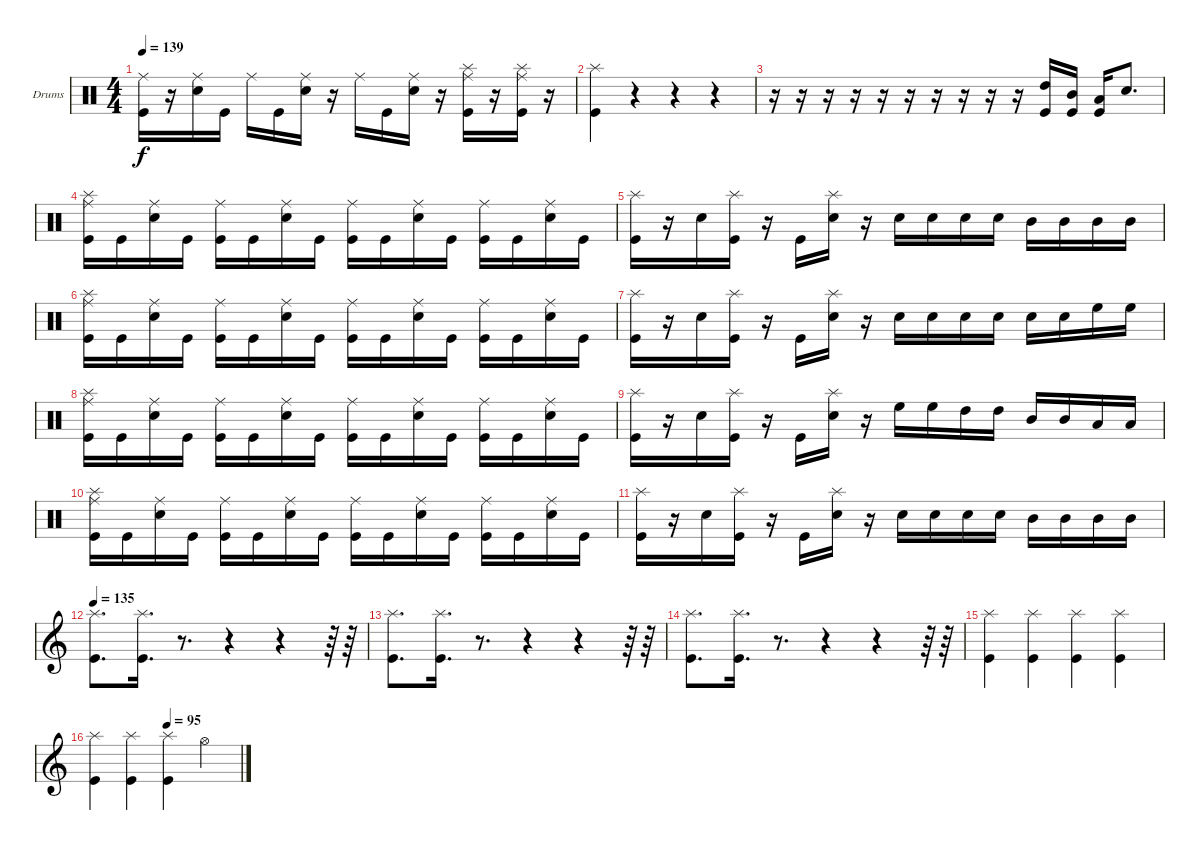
\bracketExtendMode groupsimilarinstruments
\firstSystemTrackNameOrientation horizontal
\otherSystemsTrackNameOrientation horizontal
\track ("Drumkit" "Drums") {instrument percussion}
\staff {score}
\articulation defaults
\ts (4 4)
\tempo 139
\clef neutral
\ks c
("Kick (hit)" "Ride (middle)").16{dy f} r.16 ("Snare (hit) 2" "Ride (middle)").16 "Kick (hit)".16 "Ride (middle)".16 "Kick (hit)".16 ("Snare (hit) 2" "Ride (middle)").16 r.16 "Ride (middle)".16 "Kick (hit)".16 ("Snare (hit) 2" "Ride (middle)").16 r.16 ("Kick (hit)" "Ride (middle)" "Splash (hit)").16 r.16 ("Kick (hit)" "Ride (middle)" "Splash (hit)").16 r.16 |
("Kick (hit)" "Splash (hit)").4 r.4 r.4 r.4 |
r.16 r.16 r.16 r.16 r.16 r.16 r.16 r.16 r.16 r.16 ("Kick (hit)" "High Tom (hit)").16 ("Kick (hit)" "Mid Tom (hit)").16 ("Kick (hit)" "Low Tom (hit)").16 "Snare (hit) 2".8{d} |
("Kick (hit)" "Splash (hit)" "Ride (middle)").16 "Kick (hit)".16 ("Snare (hit) 2" "Ride (middle)").16 "Kick (hit)".16 ("Kick (hit)" "Ride (middle)").16 "Kick (hit)".16 ("Snare (hit) 2" "Ride (middle)").16 "Kick (hit)".16 ("Kick (hit)" "Ride (middle)").16 "Kick (hit)".16 ("Snare (hit) 2" "Ride (middle)").16 "Kick (hit)".16 ("Kick (hit)" "Ride (middle)").16 "Kick (hit)".16 ("Snare (hit) 2" "Ride (middle)").16 "Kick (hit)".16 |
("Kick (hit)" "Splash (hit)").16 r.16 "Snare (hit) 2".16 ("Kick (hit)" "Splash (hit)").16 r.16 "Kick (hit)".16 ("Snare (hit) 2" "Splash (hit)").16 r.16 "Snare (hit) 2".16 "Snare (hit) 2".16 "Snare (hit) 2".16 "Snare (hit) 2".16 "Mid Tom (hit)".16 "Mid Tom (hit)".16 "Mid Tom (hit)".16 "Mid Tom (hit)".16 |
("Kick (hit)" "Splash (hit)" "Ride (middle)").16 "Kick (hit)".16 ("Snare (hit) 2" "Ride (middle)").16 "Kick (hit)".16 ("Kick (hit)" "Ride (middle)").16 "Kick (hit)".16 ("Snare (hit) 2" "Ride (middle)").16 "Kick (hit)".16 ("Kick (hit)" "Ride (middle)").16 "Kick (hit)".16 ("Snare (hit) 2" "Ride (middle)").16 "Kick (hit)".16 ("Kick (hit)" "Ride (middle)").16 "Kick (hit)".16 ("Snare (hit) 2" "Ride (middle)").16 "Kick (hit)".16 |
("Kick (hit)" "Splash (hit)").16 r.16 "Snare (hit) 2".16 ("Kick (hit)" "Splash (hit)").16 r.16 "Kick (hit)".16 ("Snare (hit) 2" "Splash (hit)").16 r.16 "Snare (hit) 2".16 "Snare (hit) 2".16 "Snare (hit) 2".16 "Snare (hit) 2".16 "Snare (hit) 2".16 "Snare (hit) 2".16 "High Floor Tom (hit)".16 "High Floor Tom (hit)".16 |
("Kick (hit)" "Splash (hit)" "Ride (middle)").16 "Kick (hit)".16 ("Snare (hit) 2" "Ride (middle)").16 "Kick (hit)".16 ("Kick (hit)" "Ride (middle)").16 "Kick (hit)".16 ("Snare (hit) 2" "Ride (middle)").16 "Kick (hit)".16 ("Kick (hit)" "Ride (middle)").16 "Kick (hit)".16 ("Snare (hit) 2" "Ride (middle)").16 "Kick (hit)".16 ("Kick (hit)" "Ride (middle)").16 "Kick (hit)".16 ("Snare (hit) 2" "Ride (middle)").16 "Kick (hit)".16 |
("Kick (hit)" "Splash (hit)").16 r.16 "Snare (hit) 2".16 ("Kick (hit)" "Splash (hit)").16 r.16 "Kick (hit)".16 ("Snare (hit) 2" "Splash (hit)").16 r.16 "High Floor Tom (hit)".16 "High Floor Tom (hit)".16 "High Tom (hit)".16 "High Tom (hit)".16 "Mid Tom (hit)".16 "Mid Tom (hit)".16 "Low Tom (hit)".16 "Low Tom (hit)".16 |
("Kick (hit)" "Splash (hit)" "Ride (middle)").16 "Kick (hit)".16 ("Snare (hit) 2" "Ride (middle)").16 "Kick (hit)".16 ("Kick (hit)" "Ride (middle)").16 "Kick (hit)".16 ("Snare (hit) 2" "Ride (middle)").16 "Kick (hit)".16 ("Kick (hit)" "Ride (middle)").16 "Kick (hit)".16 ("Snare (hit) 2" "Ride (middle)").16 "Kick (hit)".16 ("Kick (hit)" "Ride (middle)").16 "Kick (hit)".16 ("Snare (hit) 2" "Ride (middle)").16 "Kick (hit)".16 |
("Kick (hit)" "Splash (hit)").16 r.16 "Snare (hit) 2".16 ("Kick (hit)" "Splash (hit)").16 r.16 "Kick (hit)".16 ("Snare (hit) 2" "Splash (hit)").16 r.16 "Snare (hit) 2".16 "Snare (hit) 2".16 "Snare (hit) 2".16 "Snare (hit) 2".16 "Mid Tom (hit)".16 "Mid Tom (hit)".16 "Mid Tom (hit)".16 "Mid Tom (hit)".16 |
\tempo 135
\clef g2
("Kick (hit)" "Splash (hit)").8{d} ("Kick (hit)" "Splash (hit)").16{d} r.8{d} r.4 r.4 r.64 r.64 |
("Kick (hit)" "Splash (hit)").8{d} ("Kick (hit)" "Splash (hit)").16{d} r.8{d} r.4 r.4 r.64 r.64 |
("Splash (hit)" "Kick (hit)").8{d} ("Splash (hit)" "Kick (hit)").16{d} r.8{d} r.4 r.4 r.64 r.64 |
("Kick (hit)" "Splash (hit)").4 ("Kick (hit)" "Splash (hit)").4 ("Kick (hit)" "Splash (hit)").4 ("Kick (hit)" "Splash (hit)").4 |
\tempo (95 0.5)
("Splash (hit)" "Kick (hit)").4 ("Splash (hit)" "Kick (hit)").4 ("Splash (hit)" "Kick (hit)").4 "Hi-Hat (open)".4
